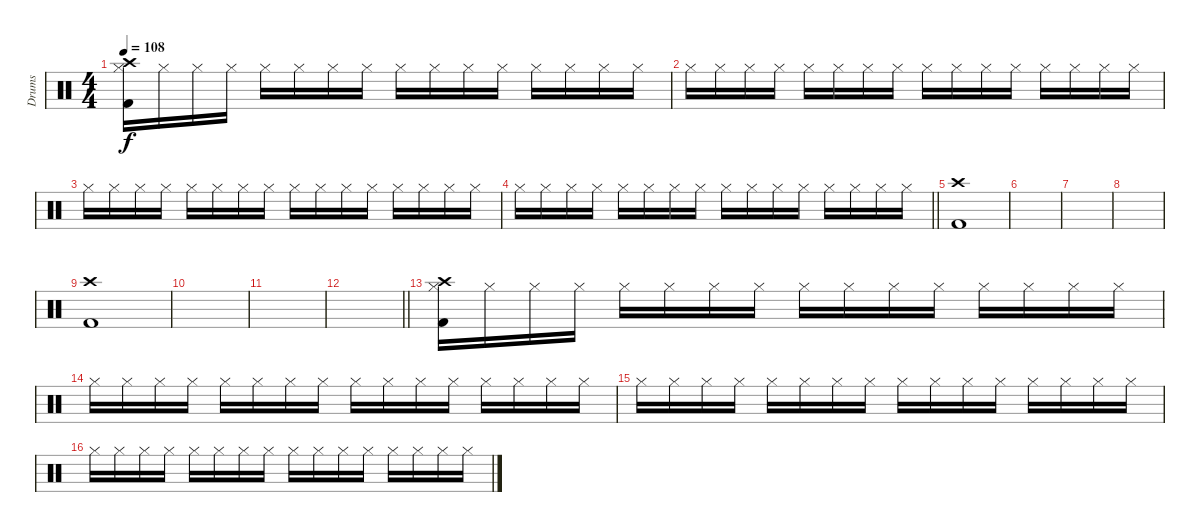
\track ("Drums" "Drums") {instrument percussion}
\staff {score}
\articulation defaults
\ts (4 4)
\tempo 108
\clef neutral
\ks c
("Crash high (hit)" "Hi-Hat (closed)" "Kick (hit) 2").16{dy f} "Hi-Hat (closed)".16 "Hi-Hat (closed)".16 "Hi-Hat (closed)".16 "Hi-Hat (closed)".16 "Hi-Hat (closed)".16 "Hi-Hat (closed)".16 "Hi-Hat (closed)".16 "Hi-Hat (closed)".16 "Hi-Hat (closed)".16 "Hi-Hat (closed)".16 "Hi-Hat (closed)".16 "Hi-Hat (closed)".16 "Hi-Hat (closed)".16 "Hi-Hat (closed)".16 "Hi-Hat (closed)".16 |
"Hi-Hat (closed)".16 "Hi-Hat (closed)".16 "Hi-Hat (closed)".16 "Hi-Hat (closed)".16 "Hi-Hat (closed)".16 "Hi-Hat (closed)".16 "Hi-Hat (closed)".16 "Hi-Hat (closed)".16 "Hi-Hat (closed)".16 "Hi-Hat (closed)".16 "Hi-Hat (closed)".16 "Hi-Hat (closed)".16 "Hi-Hat (closed)".16 "Hi-Hat (closed)".16 "Hi-Hat (closed)".16 "Hi-Hat (closed)".16 |
"Hi-Hat (closed)".16 "Hi-Hat (closed)".16 "Hi-Hat (closed)".16 "Hi-Hat (closed)".16 "Hi-Hat (closed)".16 "Hi-Hat (closed)".16 "Hi-Hat (closed)".16 "Hi-Hat (closed)".16 "Hi-Hat (closed)".16 "Hi-Hat (closed)".16 "Hi-Hat (closed)".16 "Hi-Hat (closed)".16 "Hi-Hat (closed)".16 "Hi-Hat (closed)".16 "Hi-Hat (closed)".16 "Hi-Hat (closed)".16 |
\barLineRight lightlight "Hi-Hat (closed)".16 "Hi-Hat (closed)".16 "Hi-Hat (closed)".16 "Hi-Hat (closed)".16 "Hi-Hat (closed)".16 "Hi-Hat (closed)".16 "Hi-Hat (closed)".16 "Hi-Hat (closed)".16 "Hi-Hat (closed)".16 "Hi-Hat (closed)".16 "Hi-Hat (closed)".16 "Hi-Hat (closed)".16 "Hi-Hat (closed)".16 "Hi-Hat (closed)".16 "Hi-Hat (closed)".16 "Hi-Hat (closed)".16
|
\section ("" "")
("Crash high (hit)" "Kick (hit) 2").1 |
|
|
|
("Crash high (hit)" "Kick (hit) 2").1 |
|
|
\barLineRight lightlight
|
\section ("" "")
("Crash high (hit)" "Hi-Hat (closed)" "Kick (hit) 2").16 "Hi-Hat (closed)".16 "Hi-Hat (closed)".16 "Hi-Hat (closed)".16 "Hi-Hat (closed)".16 "Hi-Hat (closed)".16 "Hi-Hat (closed)".16 "Hi-Hat (closed)".16 "Hi-Hat (closed)".16 "Hi-Hat (closed)".16 "Hi-Hat (closed)".16 "Hi-Hat (closed)".16 "Hi-Hat (closed)".16 "Hi-Hat (closed)".16 "Hi-Hat (closed)".16 "Hi-Hat (closed)".16 |
"Hi-Hat (closed)".16 "Hi-Hat (closed)".16 "Hi-Hat (closed)".16 "Hi-Hat (closed)".16 "Hi-Hat (closed)".16 "Hi-Hat (closed)".16 "Hi-Hat (closed)".16 "Hi-Hat (closed)".16 "Hi-Hat (closed)".16 "Hi-Hat (closed)".16 "Hi-Hat (closed)".16 "Hi-Hat (closed)".16 "Hi-Hat (closed)".16 "Hi-Hat (closed)".16 "Hi-Hat (closed)".16 "Hi-Hat (closed)".16 |
"Hi-Hat (closed)".16 "Hi-Hat (closed)".16 "Hi-Hat (closed)".16 "Hi-Hat (closed)".16 "Hi-Hat (closed)".16 "Hi-Hat (closed)".16 "Hi-Hat (closed)".16 "Hi-Hat (closed)".16 "Hi-Hat (closed)".16 "Hi-Hat (closed)".16 "Hi-Hat (closed)".16 "Hi-Hat (closed)".16 "Hi-Hat (closed)".16 "Hi-Hat (closed)".16 "Hi-Hat (closed)".16 "Hi-Hat (closed)".16 |
"Hi-Hat (closed)".16 "Hi-Hat (closed)".16 "Hi-Hat (closed)".16 "Hi-Hat (closed)".16 "Hi-Hat (closed)".16 "Hi-Hat (closed)".16 "Hi-Hat (closed)".16 "Hi-Hat (closed)".16 "Hi-Hat (closed)".16 "Hi-Hat (closed)".16 "Hi-Hat (closed)".16 "Hi-Hat (closed)".16 "Hi-Hat (closed)".16 "Hi-Hat (closed)".16 "Hi-Hat (closed)".16 "Hi-Hat (closed)".16
